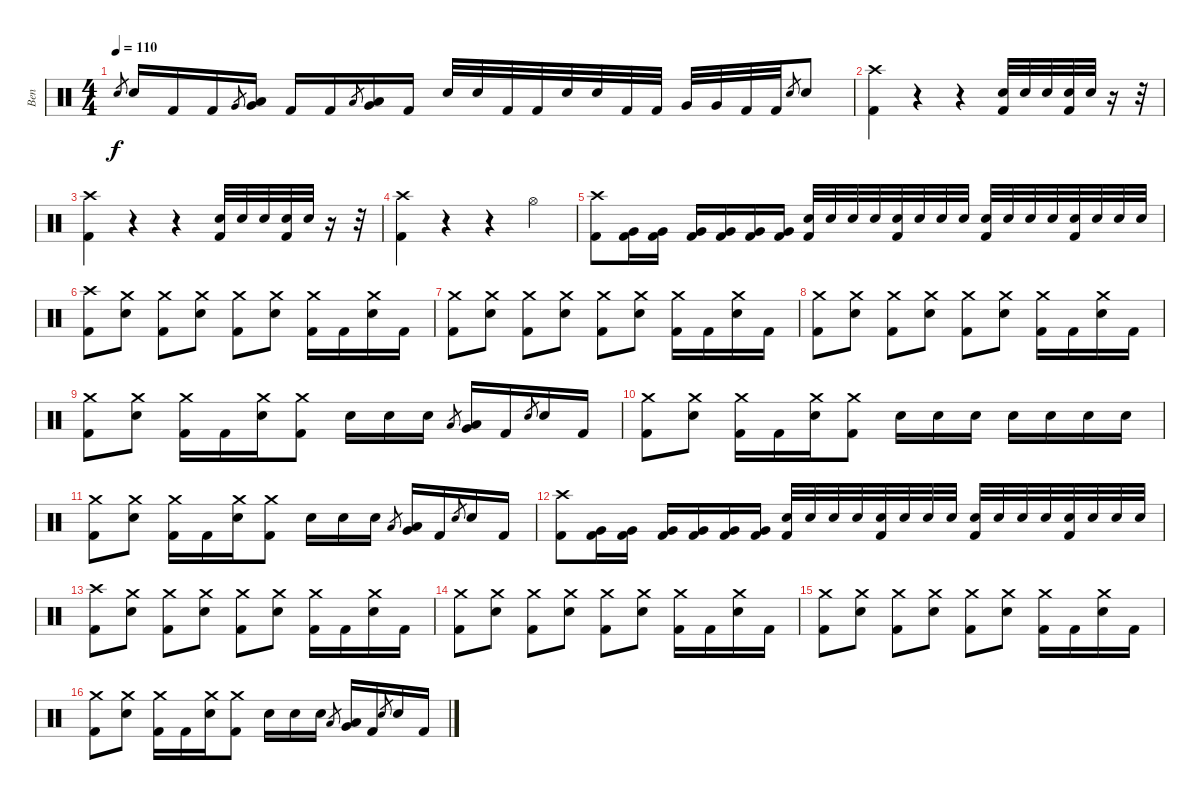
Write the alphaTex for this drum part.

\track ("Ben" "Ben") {instrument percussion}
\staff {score}
\articulation defaults
\ts (4 4)
\tempo 110
\clef neutral
\ks c "Snare (hit) 2".8{gr dy f} "Snare (hit) 2".16 "Kick (hit) 2".16 "Kick (hit) 2".16 "Very Low Tom (hit)".8{gr}
("Low Tom (hit)" "Very Low Tom (hit)").16 "Kick (hit) 2".16 "Kick (hit) 2".16 "Low Floor Tom (hit)".8{gr} ("Very Low Tom (hit)" "Low Floor Tom (hit)").16 "Kick (hit) 2".16 "Snare (hit) 2".32 "Snare (hit) 2".32 "Kick (hit) 2".32 "Kick (hit) 2".32 "Snare (hit) 2".32 "Snare (hit) 2".32 "Kick (hit) 2".32 "Kick (hit) 2".32 "Very Low Tom (hit)".32 "Very Low Tom (hit)".32 "Kick (hit) 2".32 "Kick (hit) 2".32 "Snare (hit) 2".8{gr} "Snare (hit) 2".8 |
("Crash high (hit)" "Kick (hit) 2").4 r.4 r.4 ("Kick (hit) 2" "Snare (hit) 2").32 "Snare (hit) 2".32 "Snare (hit) 2".32 ("Kick (hit) 2" "Snare (hit) 2").32 "Snare (hit) 2".32 r.16 r.32 |
("Crash high (hit)" "Kick (hit) 2").4 r.4 r.4 ("Kick (hit) 2" "Snare (hit) 2").32 "Snare (hit) 2".32 "Snare (hit) 2".32 ("Kick (hit) 2" "Snare (hit) 2").32 "Snare (hit) 2".32 r.16 r.32 |
("Crash high (hit)" "Kick (hit) 2").4 r.4 r.4 "Hi-Hat (open)".4 |
("Crash high (hit)" "Kick (hit) 2").8 ("Kick (hit) 2" "Very Low Tom (hit)").16 ("Kick (hit) 2" "Very Low Tom (hit)").16 ("Kick (hit) 2" "Very Low Tom (hit)").16 ("Kick (hit) 2" "Very Low Tom (hit)").16 ("Kick (hit) 2" "Very Low Tom (hit)").16 ("Kick (hit) 2" "Very Low Tom (hit)").16 ("Kick (hit) 2" "Snare (hit) 2").32 "Snare (hit) 2".32 "Snare (hit) 2".32 "Snare (hit) 2".32 ("Kick (hit) 2" "Snare (hit) 2").32 "Snare (hit) 2".32 "Snare (hit) 2".32 "Snare (hit) 2".32 ("Kick (hit) 2" "Snare (hit) 2").32 "Snare (hit) 2".32 "Snare (hit) 2".32 "Snare (hit) 2".32 ("Kick (hit) 2" "Snare (hit) 2").32 "Snare (hit) 2".32 "Snare (hit) 2".32 "Snare (hit) 2".32 |
("Crash high (hit)" "Kick (hit) 2").8 ("Crash medium (hit)" "Snare (hit) 2").8 ("Crash medium (hit)" "Kick (hit) 2").8 ("Crash medium (hit)" "Snare (hit) 2").8 ("Crash medium (hit)" "Kick (hit) 2").8 ("Crash medium (hit)" "Snare (hit) 2").8 ("Crash medium (hit)" "Kick (hit) 2").16 "Kick (hit) 2".16 ("Crash medium (hit)" "Snare (hit) 2").16 "Kick (hit) 2".16 |
("Crash medium (hit)" "Kick (hit) 2").8 ("Crash medium (hit)" "Snare (hit) 2").8 ("Crash medium (hit)" "Kick (hit) 2").8 ("Crash medium (hit)" "Snare (hit) 2").8 ("Crash medium (hit)" "Kick (hit) 2").8 ("Crash medium (hit)" "Snare (hit) 2").8 ("Crash medium (hit)" "Kick (hit) 2").16 "Kick (hit) 2".16 ("Crash medium (hit)" "Snare (hit) 2").16 "Kick (hit) 2".16 |
("Crash medium (hit)" "Kick (hit) 2").8 ("Crash medium (hit)" "Snare (hit) 2").8 ("Crash medium (hit)" "Kick (hit) 2").8 ("Crash medium (hit)" "Snare (hit) 2").8 ("Crash medium (hit)" "Kick (hit) 2").8 ("Crash medium (hit)" "Snare (hit) 2").8 ("Crash medium (hit)" "Kick (hit) 2").16 "Kick (hit) 2".16 ("Crash medium (hit)" "Snare (hit) 2").16 "Kick (hit) 2".16 |
("Crash medium (hit)" "Kick (hit) 2").8 ("Crash medium (hit)" "Snare (hit) 2").8 ("Crash medium (hit)" "Kick (hit) 2").16 "Kick (hit) 2".16 ("Crash medium (hit)" "Snare (hit) 2").16 ("Crash medium (hit)" "Kick (hit) 2").8 "Snare (hit) 2".16 "Snare (hit) 2".16 "Snare (hit) 2".16 "Low Floor Tom (hit)".8{gr} ("Low Floor Tom (hit)" "Very Low Tom (hit)").16 "Kick (hit) 2".16 "Snare (hit) 2".8{gr} "Snare (hit) 2".16 "Kick (hit) 2".16 |
("Crash medium (hit)" "Kick (hit) 2").8 ("Crash medium (hit)" "Snare (hit) 2").8 ("Crash medium (hit)" "Kick (hit) 2").16 "Kick (hit) 2".16 ("Crash medium (hit)" "Snare (hit) 2").16 ("Crash medium (hit)" "Kick (hit) 2").8 "Snare (hit) 2".16 "Snare (hit) 2".16 "Snare (hit) 2".16 "Snare (hit) 2".16 "Snare (hit) 2".16 "Snare (hit) 2".16 "Snare (hit) 2".16 |
("Crash medium (hit)" "Kick (hit) 2").8 ("Crash medium (hit)" "Snare (hit) 2").8 ("Crash medium (hit)" "Kick (hit) 2").16 "Kick (hit) 2".16 ("Crash medium (hit)" "Snare (hit) 2").16 ("Crash medium (hit)" "Kick (hit) 2").8 "Snare (hit) 2".16 "Snare (hit) 2".16 "Snare (hit) 2".16 "Low Floor Tom (hit)".8{gr} ("Low Floor Tom (hit)" "Very Low Tom (hit)").16 "Kick (hit) 2".16 "Snare (hit) 2".8{gr} "Snare (hit) 2".16 "Kick (hit) 2".16 |
("Crash high (hit)" "Kick (hit) 2").8 ("Kick (hit) 2" "Very Low Tom (hit)").16 ("Kick (hit) 2" "Very Low Tom (hit)").16 ("Kick (hit) 2" "Very Low Tom (hit)").16 ("Kick (hit) 2" "Very Low Tom (hit)").16 ("Kick (hit) 2" "Very Low Tom (hit)").16 ("Kick (hit) 2" "Very Low Tom (hit)").16 ("Kick (hit) 2" "Snare (hit) 2").32 "Snare (hit) 2".32 "Snare (hit) 2".32 "Snare (hit) 2".32 ("Kick (hit) 2" "Snare (hit) 2").32 "Snare (hit) 2".32 "Snare (hit) 2".32 "Snare (hit) 2".32 ("Kick (hit) 2" "Snare (hit) 2").32 "Snare (hit) 2".32 "Snare (hit) 2".32 "Snare (hit) 2".32 ("Kick (hit) 2" "Snare (hit) 2").32 "Snare (hit) 2".32 "Snare (hit) 2".32 "Snare (hit) 2".32 |
("Crash high (hit)" "Kick (hit) 2").8 ("Crash medium (hit)" "Snare (hit) 2").8 ("Crash medium (hit)" "Kick (hit) 2").8 ("Crash medium (hit)" "Snare (hit) 2").8 ("Crash medium (hit)" "Kick (hit) 2").8 ("Crash medium (hit)" "Snare (hit) 2").8 ("Crash medium (hit)" "Kick (hit) 2").16 "Kick (hit) 2".16 ("Crash medium (hit)" "Snare (hit) 2").16 "Kick (hit) 2".16 |
("Crash medium (hit)" "Kick (hit) 2").8 ("Crash medium (hit)" "Snare (hit) 2").8 ("Crash medium (hit)" "Kick (hit) 2").8 ("Crash medium (hit)" "Snare (hit) 2").8 ("Crash medium (hit)" "Kick (hit) 2").8 ("Crash medium (hit)" "Snare (hit) 2").8 ("Crash medium (hit)" "Kick (hit) 2").16 "Kick (hit) 2".16 ("Crash medium (hit)" "Snare (hit) 2").16 "Kick (hit) 2".16 |
("Crash medium (hit)" "Kick (hit) 2").8 ("Crash medium (hit)" "Snare (hit) 2").8 ("Crash medium (hit)" "Kick (hit) 2").8 ("Crash medium (hit)" "Snare (hit) 2").8 ("Crash medium (hit)" "Kick (hit) 2").8 ("Crash medium (hit)" "Snare (hit) 2").8 ("Crash medium (hit)" "Kick (hit) 2").16 "Kick (hit) 2".16 ("Crash medium (hit)" "Snare (hit) 2").16 "Kick (hit) 2".16 |
("Crash medium (hit)" "Kick (hit) 2").8 ("Crash medium (hit)" "Snare (hit) 2").8 ("Crash medium (hit)" "Kick (hit) 2").16 "Kick (hit) 2".16 ("Crash medium (hit)" "Snare (hit) 2").16 ("Crash medium (hit)" "Kick (hit) 2").8 "Snare (hit) 2".16 "Snare (hit) 2".16 "Snare (hit) 2".16 "Low Floor Tom (hit)".8{gr} ("Low Floor Tom (hit)" "Very Low Tom (hit)").16 "Kick (hit) 2".16 "Snare (hit) 2".8{gr} "Snare (hit) 2".16 "Kick (hit) 2".16
